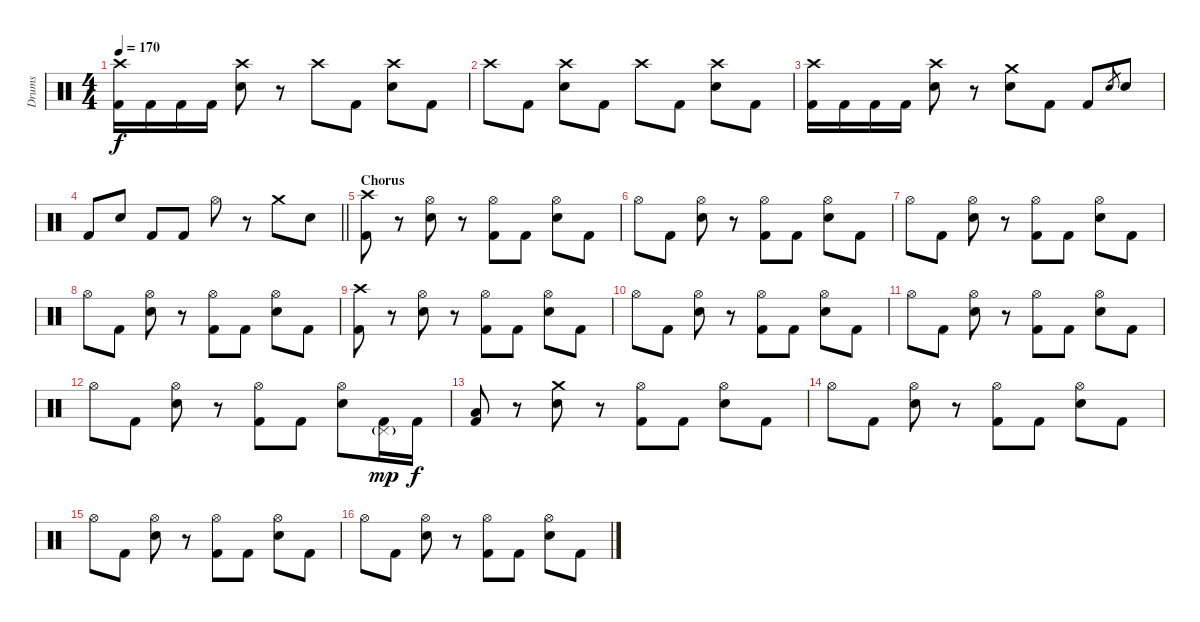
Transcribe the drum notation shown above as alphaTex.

\track ("Drums" "Drums") {instrument percussion}
\staff {score}
\articulation defaults
\ts (4 4)
\tempo 170
\clef neutral
\ks c
("Crash high (hit)" "Kick (hit) 2").16{dy f} "Kick (hit) 2".16 "Kick (hit) 2".16 "Kick (hit) 2".16 ("Crash high (hit)" "Electric Snare (hit)").8 r.8 "Crash high (hit)".8 "Kick (hit) 2".8 ("Crash high (hit)" "Electric Snare (hit)").8 "Kick (hit) 2".8 |
"Crash high (hit)".8 "Kick (hit) 2".8 ("Crash high (hit)" "Electric Snare (hit)").8 "Kick (hit) 2".8 "Crash high (hit)".8 "Kick (hit) 2".8 ("Crash high (hit)" "Electric Snare (hit)").8 "Kick (hit) 2".8 |
("Crash high (hit)" "Kick (hit) 2").16 "Kick (hit) 2".16 "Kick (hit) 2".16 "Kick (hit) 2".16 ("Crash high (hit)" "Electric Snare (hit)").8 r.8 ("Crash medium (hit)" "Electric Snare (hit)").8 "Kick (hit) 2".8 "Kick (hit) 2".8 "Electric Snare (hit)".8{gr} "Electric Snare (hit)".8 |
\barLineRight lightlight "Kick (hit) 2".8 "Electric Snare (hit)".8 "Kick (hit) 2".8 "Kick (hit) 2".8 "Hi-Hat (open)".8
r.8 "Crash medium (hit)".8 "Electric Snare (hit)".8 |
\section ("" "Chorus")
("Crash high (hit)" "Kick (hit) 2").8 r.8 ("Hi-Hat (open)" "Electric Snare (hit)").8 r.8 ("Hi-Hat (open)" "Kick (hit) 2").8 "Kick (hit) 2".8 ("Hi-Hat (open)" "Electric Snare (hit)").8 "Kick (hit) 2".8 |
"Hi-Hat (open)".8 "Kick (hit) 2".8 ("Hi-Hat (open)" "Electric Snare (hit)").8 r.8 ("Hi-Hat (open)" "Kick (hit) 2").8 "Kick (hit) 2".8 ("Hi-Hat (open)" "Electric Snare (hit)").8 "Kick (hit) 2".8 |
"Hi-Hat (open)".8 "Kick (hit) 2".8 ("Hi-Hat (open)" "Electric Snare (hit)").8 r.8 ("Hi-Hat (open)" "Kick (hit) 2").8 "Kick (hit) 2".8 ("Hi-Hat (open)" "Electric Snare (hit)").8 "Kick (hit) 2".8 |
"Hi-Hat (open)".8 "Kick (hit) 2".8 ("Hi-Hat (open)" "Electric Snare (hit)").8 r.8 ("Hi-Hat (open)" "Kick (hit) 2").8 "Kick (hit) 2".8 ("Hi-Hat (open)" "Electric Snare (hit)").8 "Kick (hit) 2".8 |
("Crash high (hit)" "Kick (hit) 2").8 r.8 ("Hi-Hat (open)" "Electric Snare (hit)").8 r.8 ("Hi-Hat (open)" "Kick (hit) 2").8 "Kick (hit) 2".8 ("Hi-Hat (open)" "Electric Snare (hit)").8 "Kick (hit) 2".8 |
"Hi-Hat (open)".8 "Kick (hit) 2".8 ("Hi-Hat (open)" "Electric Snare (hit)").8 r.8 ("Hi-Hat (open)" "Kick (hit) 2").8 "Kick (hit) 2".8 ("Hi-Hat (open)" "Electric Snare (hit)").8 "Kick (hit) 2".8 |
"Hi-Hat (open)".8 "Kick (hit) 2".8 ("Hi-Hat (open)" "Electric Snare (hit)").8 r.8 ("Hi-Hat (open)" "Kick (hit) 2").8 "Kick (hit) 2".8 ("Hi-Hat (open)" "Electric Snare (hit)").8 "Kick (hit) 2".8 |
"Hi-Hat (open)".8 "Kick (hit) 2".8 ("Hi-Hat (open)" "Electric Snare (hit)").8 r.8 ("Hi-Hat (open)" "Kick (hit) 2").8 "Kick (hit) 2".8 ("Hi-Hat (open)" "Electric Snare (hit)").8 ("Pedal Hi-Hat (hit)"{g} "Kick (hit) 2").16{dy mp} "Kick (hit) 2".16{dy f} |
("Low Floor Tom (hit)" "Kick (hit) 2").8 r.8 ("Crash medium (hit)" "Electric Snare (hit)").8 r.8 ("Hi-Hat (open)" "Kick (hit) 2").8 "Kick (hit) 2".8 ("Hi-Hat (open)" "Electric Snare (hit)").8 "Kick (hit) 2".8 |
"Hi-Hat (open)".8 "Kick (hit) 2".8 ("Hi-Hat (open)" "Electric Snare (hit)").8 r.8 ("Hi-Hat (open)" "Kick (hit) 2").8 "Kick (hit) 2".8 ("Hi-Hat (open)" "Electric Snare (hit)").8 "Kick (hit) 2".8 |
"Hi-Hat (open)".8 "Kick (hit) 2".8 ("Hi-Hat (open)" "Electric Snare (hit)").8 r.8 ("Hi-Hat (open)" "Kick (hit) 2").8 "Kick (hit) 2".8 ("Hi-Hat (open)" "Electric Snare (hit)").8 "Kick (hit) 2".8 |
"Hi-Hat (open)".8 "Kick (hit) 2".8 ("Hi-Hat (open)" "Electric Snare (hit)").8 r.8 ("Hi-Hat (open)" "Kick (hit) 2").8 "Kick (hit) 2".8 ("Hi-Hat (open)" "Electric Snare (hit)").8 "Kick (hit) 2".8
